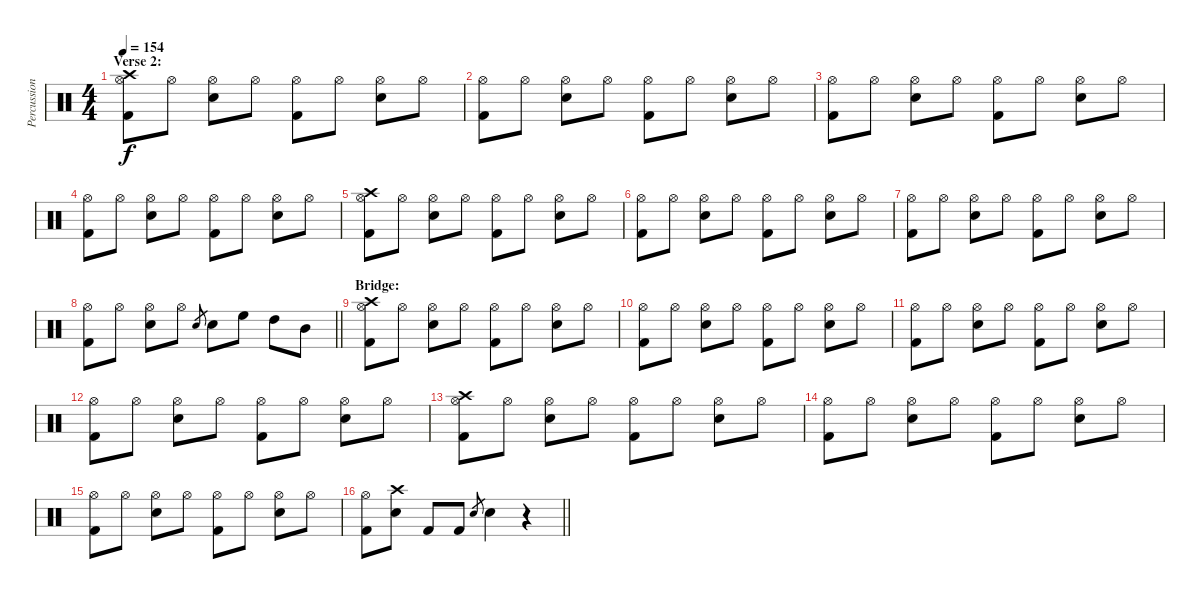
\track ("Percussion" "Percussion") {instrument percussion}
\staff {score}
\articulation defaults
\ts (4 4)
\section ("" "Verse 2:")
\tempo 154
\clef neutral
\ks c
("Hi-Hat (open)" "Crash high (hit)" "Kick (hit) 2").8{dy f} "Hi-Hat (open)".8 ("Hi-Hat (open)" "Snare (hit) 2").8 "Hi-Hat (open)".8 ("Hi-Hat (open)" "Kick (hit) 2").8 "Hi-Hat (open)".8 ("Hi-Hat (open)" "Snare (hit) 2").8 "Hi-Hat (open)".8 |
("Hi-Hat (open)" "Kick (hit) 2").8 "Hi-Hat (open)".8 ("Hi-Hat (open)" "Snare (hit) 2").8 "Hi-Hat (open)".8 ("Hi-Hat (open)" "Kick (hit) 2").8 "Hi-Hat (open)".8 ("Hi-Hat (open)" "Snare (hit) 2").8 "Hi-Hat (open)".8 |
("Hi-Hat (open)" "Kick (hit) 2").8 "Hi-Hat (open)".8 ("Hi-Hat (open)" "Snare (hit) 2").8 "Hi-Hat (open)".8 ("Hi-Hat (open)" "Kick (hit) 2").8 "Hi-Hat (open)".8 ("Hi-Hat (open)" "Snare (hit) 2").8 "Hi-Hat (open)".8 |
("Hi-Hat (open)" "Kick (hit) 2").8 "Hi-Hat (open)".8 ("Hi-Hat (open)" "Snare (hit) 2").8 "Hi-Hat (open)".8 ("Hi-Hat (open)" "Kick (hit) 2").8 "Hi-Hat (open)".8 ("Hi-Hat (open)" "Snare (hit) 2").8 "Hi-Hat (open)".8 |
("Hi-Hat (open)" "Crash high (hit)" "Kick (hit) 2").8 "Hi-Hat (open)".8 ("Hi-Hat (open)" "Snare (hit) 2").8 "Hi-Hat (open)".8 ("Hi-Hat (open)" "Kick (hit) 2").8 "Hi-Hat (open)".8 ("Hi-Hat (open)" "Snare (hit) 2").8 "Hi-Hat (open)".8 |
("Hi-Hat (open)" "Kick (hit) 2").8 "Hi-Hat (open)".8 ("Hi-Hat (open)" "Snare (hit) 2").8 "Hi-Hat (open)".8 ("Hi-Hat (open)" "Kick (hit) 2").8 "Hi-Hat (open)".8 ("Hi-Hat (open)" "Snare (hit) 2").8 "Hi-Hat (open)".8 |
("Hi-Hat (open)" "Kick (hit) 2").8 "Hi-Hat (open)".8 ("Hi-Hat (open)" "Snare (hit) 2").8 "Hi-Hat (open)".8 ("Hi-Hat (open)" "Kick (hit) 2").8 "Hi-Hat (open)".8 ("Hi-Hat (open)" "Snare (hit) 2").8 "Hi-Hat (open)".8 |
\barLineRight lightlight
("Hi-Hat (open)" "Kick (hit) 2").8 "Hi-Hat (open)".8 ("Hi-Hat (open)" "Snare (hit) 2").8 "Hi-Hat (open)".8 "Snare (hit) 2".8{gr} "Snare (hit) 2".8 "High Floor Tom (hit)".8 "High Tom (hit)".8 "Mid Tom (hit)".8 |
\section ("" "Bridge:")
("Hi-Hat (open)" "Crash high (hit)" "Kick (hit) 2").8 "Hi-Hat (open)".8 ("Hi-Hat (open)" "Snare (hit) 2").8 "Hi-Hat (open)".8 ("Hi-Hat (open)" "Kick (hit) 2").8 "Hi-Hat (open)".8 ("Hi-Hat (open)" "Snare (hit) 2").8 "Hi-Hat (open)".8 |
("Hi-Hat (open)" "Kick (hit) 2").8 "Hi-Hat (open)".8 ("Hi-Hat (open)" "Snare (hit) 2").8 "Hi-Hat (open)".8 ("Hi-Hat (open)" "Kick (hit) 2").8 "Hi-Hat (open)".8 ("Hi-Hat (open)" "Snare (hit) 2").8 "Hi-Hat (open)".8 |
("Hi-Hat (open)" "Kick (hit) 2").8 "Hi-Hat (open)".8 ("Hi-Hat (open)" "Snare (hit) 2").8 "Hi-Hat (open)".8 ("Hi-Hat (open)" "Kick (hit) 2").8 "Hi-Hat (open)".8 ("Hi-Hat (open)" "Snare (hit) 2").8 "Hi-Hat (open)".8 |
("Hi-Hat (open)" "Kick (hit) 2").8 "Hi-Hat (open)".8 ("Hi-Hat (open)" "Snare (hit) 2").8 "Hi-Hat (open)".8 ("Hi-Hat (open)" "Kick (hit) 2").8 "Hi-Hat (open)".8 ("Hi-Hat (open)" "Snare (hit) 2").8 "Hi-Hat (open)".8 |
("Hi-Hat (open)" "Crash high (hit)" "Kick (hit) 2").8 "Hi-Hat (open)".8 ("Hi-Hat (open)" "Snare (hit) 2").8 "Hi-Hat (open)".8 ("Hi-Hat (open)" "Kick (hit) 2").8 "Hi-Hat (open)".8 ("Hi-Hat (open)" "Snare (hit) 2").8 "Hi-Hat (open)".8 |
("Hi-Hat (open)" "Kick (hit) 2").8 "Hi-Hat (open)".8 ("Hi-Hat (open)" "Snare (hit) 2").8 "Hi-Hat (open)".8 ("Hi-Hat (open)" "Kick (hit) 2").8 "Hi-Hat (open)".8 ("Hi-Hat (open)" "Snare (hit) 2").8 "Hi-Hat (open)".8 |
("Hi-Hat (open)" "Kick (hit) 2").8 "Hi-Hat (open)".8 ("Hi-Hat (open)" "Snare (hit) 2").8 "Hi-Hat (open)".8 ("Hi-Hat (open)" "Kick (hit) 2").8 "Hi-Hat (open)".8 ("Hi-Hat (open)" "Snare (hit) 2").8 "Hi-Hat (open)".8 |
\barLineRight lightlight
("Hi-Hat (open)" "Kick (hit) 2").8 ("Crash high (hit)" "Snare (hit) 2").8 "Kick (hit) 2".8 "Kick (hit) 2".8 "Snare (hit) 2".8{gr} "Snare (hit) 2".4 r.4
